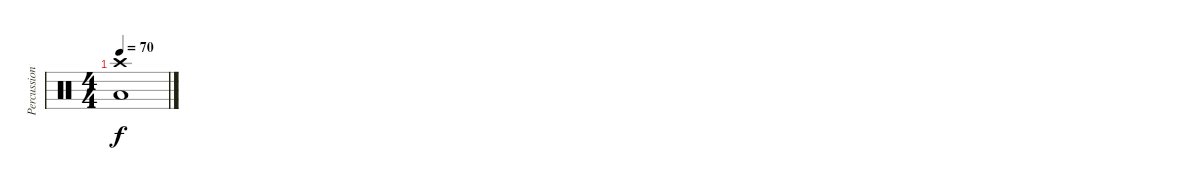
\track ("Percussions" "Percussion") {instrument percussion}
\staff {score}
\articulation defaults
\ts (4 4)
\tempo 70
\clef neutral
\ks c
("Crash high (hit)" "Low Tom (hit)").1{dy f}
